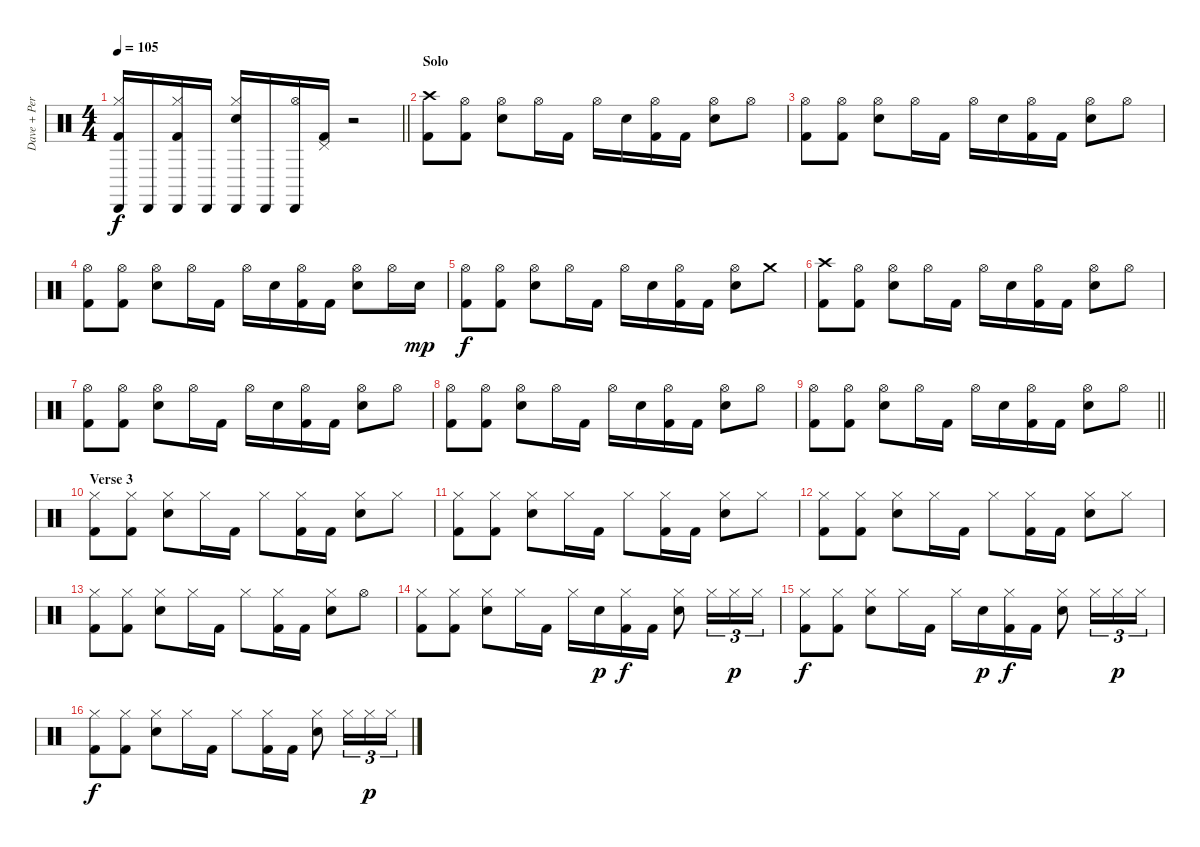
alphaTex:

\track ("Dave + Perc" "Dave + Per") {instrument percussion}
\staff {score}
\articulation defaults
\ts (4 4)
\tempo 105
\clef neutral
\barLineRight lightlight
\ks c
("Hi-Hat (closed)" "Cabasa (hit)" "Kick (hit) 2").16{dy f} "Cabasa (hit)".16 ("Hi-Hat (closed)" "Cabasa (hit)" "Kick (hit) 2").16 "Cabasa (hit)".16 ("Hi-Hat (closed)" "Cabasa (hit)" "Snare (hit) 2").16 "Cabasa (hit)".16 ("Hi-Hat (open)" "Cabasa (hit)").16 ("Pedal Hi-Hat (hit)" "Kick (hit) 2").16 r.2 |
\section ("" "Solo")
("Crash high (hit)" "Kick (hit) 2").8 ("Hi-Hat (open)" "Kick (hit) 2").8 ("Hi-Hat (open)" "Snare (hit) 2").8 "Hi-Hat (open)".16 "Kick (hit) 2".16 "Hi-Hat (open)".16 "Snare (hit) 2".16 ("Hi-Hat (open)" "Kick (hit) 2").16 "Kick (hit) 2".16 ("Hi-Hat (open)" "Snare (hit) 2").8 "Hi-Hat (open)".8 |
("Hi-Hat (open)" "Kick (hit) 2").8 ("Hi-Hat (open)" "Kick (hit) 2").8 ("Hi-Hat (open)" "Snare (hit) 2").8 "Hi-Hat (open)".16 "Kick (hit) 2".16 "Hi-Hat (open)".16 "Snare (hit) 2".16 ("Hi-Hat (open)" "Kick (hit) 2").16 "Kick (hit) 2".16 ("Hi-Hat (open)" "Snare (hit) 2").8 "Hi-Hat (open)".8 |
("Hi-Hat (open)" "Kick (hit) 2").8 ("Hi-Hat (open)" "Kick (hit) 2").8 ("Hi-Hat (open)" "Snare (hit) 2").8 "Hi-Hat (open)".16 "Kick (hit) 2".16 "Hi-Hat (open)".16 "Snare (hit) 2".16 ("Hi-Hat (open)" "Kick (hit) 2").16 "Kick (hit) 2".16 ("Hi-Hat (open)" "Snare (hit) 2").8 "Hi-Hat (open)".16 "Snare (hit) 2".16{dy mp} |
("Hi-Hat (open)" "Kick (hit) 2").8{dy f} ("Hi-Hat (open)" "Kick (hit) 2").8 ("Hi-Hat (open)" "Snare (hit) 2").8 "Hi-Hat (open)".16 "Kick (hit) 2".16 "Hi-Hat (open)".16 "Snare (hit) 2".16 ("Hi-Hat (open)" "Kick (hit) 2").16 "Kick (hit) 2".16 ("Hi-Hat (open)" "Snare (hit) 2").8 "Crash medium (hit)".8 |
("Crash high (hit)" "Kick (hit) 2").8 ("Hi-Hat (open)" "Kick (hit) 2").8 ("Hi-Hat (open)" "Snare (hit) 2").8 "Hi-Hat (open)".16 "Kick (hit) 2".16 "Hi-Hat (open)".16 "Snare (hit) 2".16 ("Hi-Hat (open)" "Kick (hit) 2").16 "Kick (hit) 2".16 ("Hi-Hat (open)" "Snare (hit) 2").8 "Hi-Hat (open)".8 |
("Hi-Hat (open)" "Kick (hit) 2").8 ("Hi-Hat (open)" "Kick (hit) 2").8 ("Hi-Hat (open)" "Snare (hit) 2").8 "Hi-Hat (open)".16 "Kick (hit) 2".16 "Hi-Hat (open)".16 "Snare (hit) 2".16 ("Hi-Hat (open)" "Kick (hit) 2").16 "Kick (hit) 2".16 ("Hi-Hat (open)" "Snare (hit) 2").8 "Hi-Hat (open)".8 |
("Hi-Hat (open)" "Kick (hit) 2").8 ("Hi-Hat (open)" "Kick (hit) 2").8 ("Hi-Hat (open)" "Snare (hit) 2").8 "Hi-Hat (open)".16 "Kick (hit) 2".16 "Hi-Hat (open)".16 "Snare (hit) 2".16 ("Hi-Hat (open)" "Kick (hit) 2").16 "Kick (hit) 2".16 ("Hi-Hat (open)" "Snare (hit) 2").8 "Hi-Hat (open)".8 |
\barLineRight lightlight
("Hi-Hat (open)" "Kick (hit) 2").8 ("Hi-Hat (open)" "Kick (hit) 2").8 ("Hi-Hat (open)" "Snare (hit) 2").8 "Hi-Hat (open)".16 "Kick (hit) 2".16 "Hi-Hat (open)".16 "Snare (hit) 2".16 ("Hi-Hat (open)" "Kick (hit) 2").16 "Kick (hit) 2".16 ("Hi-Hat (open)" "Snare (hit) 2").8 "Hi-Hat (open)".8 |
\section ("" "Verse 3")
("Hi-Hat (closed)" "Kick (hit) 2").8 ("Hi-Hat (closed)" "Kick (hit) 2").8 ("Hi-Hat (closed)" "Snare (hit) 2").8 "Hi-Hat (closed)".16 "Kick (hit) 2".16 "Hi-Hat (closed)".8 ("Hi-Hat (closed)" "Kick (hit) 2").16 "Kick (hit) 2".16 ("Hi-Hat (closed)" "Snare (hit) 2").8 "Hi-Hat (closed)".8 |
("Hi-Hat (closed)" "Kick (hit) 2").8 ("Hi-Hat (closed)" "Kick (hit) 2").8 ("Hi-Hat (closed)" "Snare (hit) 2").8 "Hi-Hat (closed)".16 "Kick (hit) 2".16 "Hi-Hat (closed)".8 ("Hi-Hat (closed)" "Kick (hit) 2").16 "Kick (hit) 2".16 ("Hi-Hat (closed)" "Snare (hit) 2").8 "Hi-Hat (closed)".8 |
("Hi-Hat (closed)" "Kick (hit) 2").8 ("Hi-Hat (closed)" "Kick (hit) 2").8 ("Hi-Hat (closed)" "Snare (hit) 2").8 "Hi-Hat (closed)".16 "Kick (hit) 2".16 "Hi-Hat (closed)".8 ("Hi-Hat (closed)" "Kick (hit) 2").16 "Kick (hit) 2".16 ("Hi-Hat (closed)" "Snare (hit) 2").8 "Hi-Hat (closed)".8 |
("Hi-Hat (closed)" "Kick (hit) 2").8 ("Hi-Hat (closed)" "Kick (hit) 2").8 ("Hi-Hat (closed)" "Snare (hit) 2").8 "Hi-Hat (closed)".16 "Kick (hit) 2".16 "Hi-Hat (closed)".8 ("Hi-Hat (closed)" "Kick (hit) 2").16 "Kick (hit) 2".16 ("Hi-Hat (closed)" "Snare (hit) 2").8 "Hi-Hat (open)".8 |
("Hi-Hat (closed)" "Kick (hit) 2").8 ("Hi-Hat (closed)" "Kick (hit) 2").8 ("Hi-Hat (closed)" "Snare (hit) 2").8 "Hi-Hat (closed)".16 "Kick (hit) 2".16 "Hi-Hat (closed)".16 "Snare (hit) 2".16{dy p} ("Hi-Hat (closed)" "Kick (hit) 2").16{dy f} "Kick (hit) 2".16 ("Hi-Hat (closed)" "Snare (hit) 2").8 "Hi-Hat (closed)".16{tu (3 2)} "Hi-Hat (closed)".16{tu (3 2) dy p} "Hi-Hat (closed)".16{tu (3 2)} |
("Hi-Hat (closed)" "Kick (hit) 2").8{dy f} ("Hi-Hat (closed)" "Kick (hit) 2").8 ("Hi-Hat (closed)" "Snare (hit) 2").8 "Hi-Hat (closed)".16 "Kick (hit) 2".16 "Hi-Hat (closed)".16 "Snare (hit) 2".16{dy p} ("Hi-Hat (closed)" "Kick (hit) 2").16{dy f} "Kick (hit) 2".16 ("Hi-Hat (closed)" "Snare (hit) 2").8 "Hi-Hat (closed)".16{tu (3 2)} "Hi-Hat (closed)".16{tu (3 2) dy p} "Hi-Hat (closed)".16{tu (3 2)} |
("Hi-Hat (closed)" "Kick (hit) 2").8{dy f} ("Hi-Hat (closed)" "Kick (hit) 2").8 ("Hi-Hat (closed)" "Snare (hit) 2").8 "Hi-Hat (closed)".16 "Kick (hit) 2".16 "Hi-Hat (closed)".8 ("Hi-Hat (closed)" "Kick (hit) 2").16 "Kick (hit) 2".16 ("Hi-Hat (closed)" "Snare (hit) 2").8 "Hi-Hat (closed)".16{tu (3 2)} "Hi-Hat (closed)".16{tu (3 2) dy p} "Hi-Hat (closed)".16{tu (3 2)}
